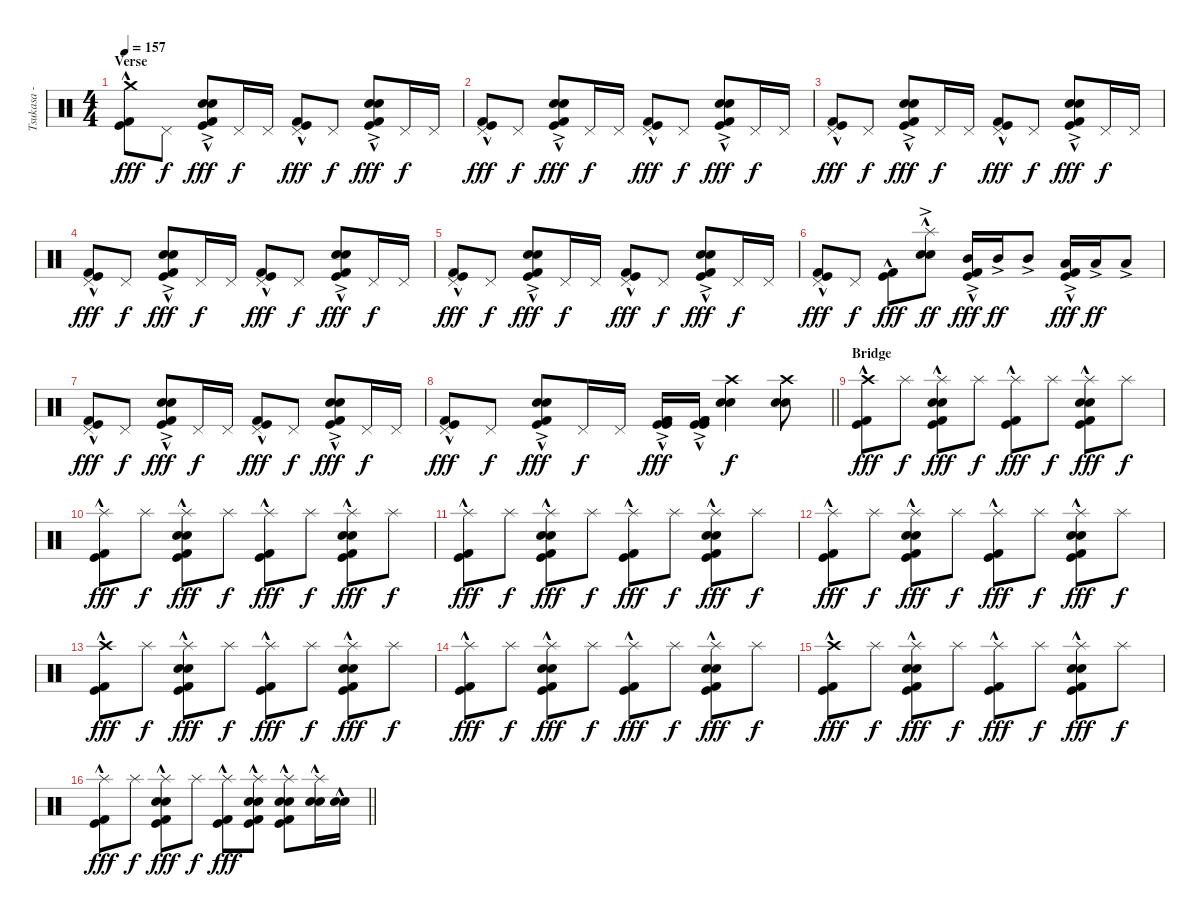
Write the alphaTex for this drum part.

\track ("Tsukasa - Drums" "Tsukasa - ") {instrument percussion}
\staff {score}
\articulation defaults
\ts (4 4)
\section ("" "Verse")
\tempo 157
\clef neutral
\ks c
("Crash medium (hit)" "Kick (hit)"{hac} "Kick (hit) 2"{hac}).8{dy fff} "Pedal Hi-Hat (hit)".8{dy f} ("Electric Snare (hit)"{ac} "Snare (hit) 2"{ac} "Kick (hit)"{hac} "Kick (hit) 2"{hac}).8{dy fff} "Pedal Hi-Hat (hit)".16{dy f} "Pedal Hi-Hat (hit)".16 ("Pedal Hi-Hat (hit)" "Kick (hit)"{hac} "Kick (hit) 2"{hac}).8{dy fff} "Pedal Hi-Hat (hit)".8{dy f} ("Electric Snare (hit)"{ac} "Snare (hit) 2"{ac} "Kick (hit)"{hac} "Kick (hit) 2"{hac}).8{dy fff} "Pedal Hi-Hat (hit)".16{dy f} "Pedal Hi-Hat (hit)".16 |
("Pedal Hi-Hat (hit)" "Kick (hit)"{hac} "Kick (hit) 2"{hac}).8{dy fff} "Pedal Hi-Hat (hit)".8{dy f} ("Electric Snare (hit)"{ac} "Snare (hit) 2"{ac} "Kick (hit)"{hac} "Kick (hit) 2"{hac}).8{dy fff} "Pedal Hi-Hat (hit)".16{dy f} "Pedal Hi-Hat (hit)".16 ("Pedal Hi-Hat (hit)" "Kick (hit)"{hac} "Kick (hit) 2"{hac}).8{dy fff} "Pedal Hi-Hat (hit)".8{dy f} ("Electric Snare (hit)"{ac} "Snare (hit) 2"{ac} "Kick (hit)"{hac} "Kick (hit) 2"{hac}).8{dy fff} "Pedal Hi-Hat (hit)".16{dy f} "Pedal Hi-Hat (hit)".16 |
("Pedal Hi-Hat (hit)" "Kick (hit)"{hac} "Kick (hit) 2"{hac}).8{dy fff} "Pedal Hi-Hat (hit)".8{dy f} ("Electric Snare (hit)"{ac} "Snare (hit) 2"{ac} "Kick (hit)"{hac} "Kick (hit) 2"{hac}).8{dy fff} "Pedal Hi-Hat (hit)".16{dy f} "Pedal Hi-Hat (hit)".16 ("Pedal Hi-Hat (hit)" "Kick (hit)"{hac} "Kick (hit) 2"{hac}).8{dy fff} "Pedal Hi-Hat (hit)".8{dy f} ("Electric Snare (hit)"{ac} "Snare (hit) 2"{ac} "Kick (hit)"{hac} "Kick (hit) 2"{hac}).8{dy fff} "Pedal Hi-Hat (hit)".16{dy f} "Pedal Hi-Hat (hit)".16 |
("Pedal Hi-Hat (hit)" "Kick (hit)"{hac} "Kick (hit) 2"{hac}).8{dy fff} "Pedal Hi-Hat (hit)".8{dy f} ("Electric Snare (hit)"{ac} "Snare (hit) 2"{ac} "Kick (hit)"{hac} "Kick (hit) 2"{hac}).8{dy fff} "Pedal Hi-Hat (hit)".16{dy f} "Pedal Hi-Hat (hit)".16 ("Pedal Hi-Hat (hit)" "Kick (hit)"{hac} "Kick (hit) 2"{hac}).8{dy fff} "Pedal Hi-Hat (hit)".8{dy f} ("Electric Snare (hit)"{ac} "Snare (hit) 2"{ac} "Kick (hit)"{hac} "Kick (hit) 2"{hac}).8{dy fff} "Pedal Hi-Hat (hit)".16{dy f} "Pedal Hi-Hat (hit)".16 |
("Pedal Hi-Hat (hit)" "Kick (hit)"{hac} "Kick (hit) 2"{hac}).8{dy fff} "Pedal Hi-Hat (hit)".8{dy f} ("Electric Snare (hit)"{ac} "Snare (hit) 2"{ac} "Kick (hit)"{hac} "Kick (hit) 2"{hac}).8{dy fff} "Pedal Hi-Hat (hit)".16{dy f} "Pedal Hi-Hat (hit)".16 ("Pedal Hi-Hat (hit)" "Kick (hit)"{hac} "Kick (hit) 2"{hac}).8{dy fff} "Pedal Hi-Hat (hit)".8{dy f} ("Electric Snare (hit)"{ac} "Snare (hit) 2"{ac} "Kick (hit)"{hac} "Kick (hit) 2"{hac}).8{dy fff} "Pedal Hi-Hat (hit)".16{dy f} "Pedal Hi-Hat (hit)".16 |
("Pedal Hi-Hat (hit)" "Kick (hit)"{hac} "Kick (hit) 2"{hac}).8{dy fff} "Pedal Hi-Hat (hit)".8{dy f} ("Kick (hit)"{hac} "Kick (hit) 2"{hac}).8{dy fff} ("Splash (hit)" "Electric Snare (hit)"{hac} "Snare (hit) 2"{ac}).8{dy ff} ("Mid Tom (hit)"{ac} "Kick (hit)"{hac} "Kick (hit) 2"{hac}).16{dy fff} "Mid Tom (hit)"{ac}.16{dy ff} "Mid Tom (hit)"{ac}.8 ("Low Tom (hit)"{ac} "Kick (hit)"{hac} "Kick (hit) 2"{hac}).16{dy fff} "Low Tom (hit)"{ac}.16{dy ff} "Low Tom (hit)"{ac}.8 |
("Pedal Hi-Hat (hit)" "Kick (hit)"{hac} "Kick (hit) 2"{hac}).8{dy fff} "Pedal Hi-Hat (hit)".8{dy f} ("Electric Snare (hit)"{ac} "Snare (hit) 2"{ac} "Kick (hit)"{hac} "Kick (hit) 2"{hac}).8{dy fff} "Pedal Hi-Hat (hit)".16{dy f} "Pedal Hi-Hat (hit)".16 ("Pedal Hi-Hat (hit)" "Kick (hit)"{hac} "Kick (hit) 2"{hac}).8{dy fff} "Pedal Hi-Hat (hit)".8{dy f} ("Electric Snare (hit)"{ac} "Snare (hit) 2"{ac} "Kick (hit)"{hac} "Kick (hit) 2"{hac}).8{dy fff} "Pedal Hi-Hat (hit)".16{dy f} "Pedal Hi-Hat (hit)".16 |
\barLineRight lightlight
("Pedal Hi-Hat (hit)" "Kick (hit)"{hac} "Kick (hit) 2"{hac}).8{dy fff} "Pedal Hi-Hat (hit)".8{dy f} ("Electric Snare (hit)"{ac} "Snare (hit) 2"{ac} "Kick (hit)"{hac} "Kick (hit) 2"{hac}).8{dy fff} "Pedal Hi-Hat (hit)".16{dy f} "Pedal Hi-Hat (hit)".16 ("Kick (hit)"{ac} "Kick (hit) 2"{ac} "Kick (hit)"{hac} "Kick (hit) 2"{hac}).16{dy fff} ("Kick (hit)"{ac} "Kick (hit) 2"{ac} "Kick (hit)"{hac} "Kick (hit) 2"{hac}).16 ("Crash high (hit)" "Electric Snare (hit)" "Snare (hit) 2").4{dy f} ("Crash high (hit)" "Electric Snare (hit)" "Snare (hit) 2").8 |
\section ("" "Bridge")
("Crash high (hit)" "Kick (hit)"{hac} "Kick (hit) 2"{hac}).8{dy fff} "Splash (hit)".8{dy f} ("Splash (hit)"{hac} "Electric Snare (hit)"{hac} "Snare (hit) 2" "Kick (hit)"{hac} "Kick (hit) 2"{hac}).8{dy fff} "Splash (hit)".8{dy f} ("Splash (hit)"{hac} "Kick (hit)"{hac} "Kick (hit) 2"{hac}).8{dy fff} "Splash (hit)".8{dy f} ("Splash (hit)"{hac} "Electric Snare (hit)"{hac} "Snare (hit) 2" "Kick (hit)"{hac} "Kick (hit) 2"{hac}).8{dy fff} "Splash (hit)".8{dy f} |
("Splash (hit)"{hac} "Kick (hit)"{hac} "Kick (hit) 2"{hac}).8{dy fff} "Splash (hit)".8{dy f} ("Splash (hit)"{hac} "Electric Snare (hit)"{hac} "Snare (hit) 2" "Kick (hit)"{hac} "Kick (hit) 2"{hac}).8{dy fff} "Splash (hit)".8{dy f} ("Splash (hit)"{hac} "Kick (hit)"{hac} "Kick (hit) 2"{hac}).8{dy fff} "Splash (hit)".8{dy f} ("Splash (hit)"{hac} "Electric Snare (hit)"{hac} "Snare (hit) 2" "Kick (hit)"{hac} "Kick (hit) 2"{hac}).8{dy fff} "Splash (hit)".8{dy f} |
("Splash (hit)"{hac} "Kick (hit)"{hac} "Kick (hit) 2"{hac}).8{dy fff} "Splash (hit)".8{dy f} ("Splash (hit)"{hac} "Electric Snare (hit)"{hac} "Snare (hit) 2" "Kick (hit)"{hac} "Kick (hit) 2"{hac}).8{dy fff} "Splash (hit)".8{dy f} ("Splash (hit)"{hac} "Kick (hit)"{hac} "Kick (hit) 2"{hac}).8{dy fff} "Splash (hit)".8{dy f} ("Splash (hit)"{hac} "Electric Snare (hit)"{hac} "Snare (hit) 2" "Kick (hit)"{hac} "Kick (hit) 2"{hac}).8{dy fff} "Splash (hit)".8{dy f} |
("Splash (hit)"{hac} "Kick (hit)"{hac} "Kick (hit) 2"{hac}).8{dy fff} "Splash (hit)".8{dy f} ("Splash (hit)"{hac} "Electric Snare (hit)"{hac} "Snare (hit) 2" "Kick (hit)"{hac} "Kick (hit) 2"{hac}).8{dy fff} "Splash (hit)".8{dy f} ("Splash (hit)"{hac} "Kick (hit)"{hac} "Kick (hit) 2"{hac}).8{dy fff} "Splash (hit)".8{dy f} ("Splash (hit)"{hac} "Electric Snare (hit)"{hac} "Snare (hit) 2" "Kick (hit)"{hac} "Kick (hit) 2"{hac}).8{dy fff} "Splash (hit)".8{dy f} |
("Crash high (hit)" "Kick (hit)"{hac} "Kick (hit) 2"{hac}).8{dy fff} "Splash (hit)".8{dy f} ("Splash (hit)"{hac} "Electric Snare (hit)"{hac} "Snare (hit) 2" "Kick (hit)"{hac} "Kick (hit) 2"{hac}).8{dy fff} "Splash (hit)".8{dy f} ("Splash (hit)"{hac} "Kick (hit)"{hac} "Kick (hit) 2"{hac}).8{dy fff} "Splash (hit)".8{dy f} ("Splash (hit)"{hac} "Electric Snare (hit)"{hac} "Snare (hit) 2" "Kick (hit)"{hac} "Kick (hit) 2"{hac}).8{dy fff} "Splash (hit)".8{dy f} |
("Splash (hit)"{hac} "Kick (hit)"{hac} "Kick (hit) 2"{hac}).8{dy fff} "Splash (hit)".8{dy f} ("Splash (hit)"{hac} "Electric Snare (hit)"{hac} "Snare (hit) 2" "Kick (hit)"{hac} "Kick (hit) 2"{hac}).8{dy fff} "Splash (hit)".8{dy f} ("Splash (hit)"{hac} "Kick (hit)"{hac} "Kick (hit) 2"{hac}).8{dy fff} "Splash (hit)".8{dy f} ("Splash (hit)"{hac} "Electric Snare (hit)"{hac} "Snare (hit) 2" "Kick (hit)"{hac} "Kick (hit) 2"{hac}).8{dy fff} "Splash (hit)".8{dy f} |
("Crash high (hit)" "Kick (hit)"{hac} "Kick (hit) 2"{hac}).8{dy fff} "Splash (hit)".8{dy f} ("Splash (hit)"{hac} "Electric Snare (hit)"{hac} "Snare (hit) 2" "Kick (hit)"{hac} "Kick (hit) 2"{hac}).8{dy fff} "Splash (hit)".8{dy f} ("Splash (hit)"{hac} "Kick (hit)"{hac} "Kick (hit) 2"{hac}).8{dy fff} "Splash (hit)".8{dy f} ("Splash (hit)"{hac} "Electric Snare (hit)"{hac} "Snare (hit) 2" "Kick (hit)"{hac} "Kick (hit) 2"{hac}).8{dy fff} "Splash (hit)".8{dy f} |
\barLineRight lightlight
("Splash (hit)"{hac} "Kick (hit)"{hac} "Kick (hit) 2"{hac}).8{dy fff} "Splash (hit)".8{dy f} ("Splash (hit)"{hac} "Electric Snare (hit)"{hac} "Snare (hit) 2" "Kick (hit)"{hac} "Kick (hit) 2"{hac}).8{dy fff} "Splash (hit)".8{dy f} ("Splash (hit)"{hac} "Kick (hit)"{hac} "Kick (hit) 2"{hac}).8{dy fff} ("Splash (hit)" "Electric Snare (hit)"{hac} "Snare (hit) 2"{hac} "Kick (hit)"{hac} "Kick (hit) 2"{hac}).8 ("Splash (hit)"{hac} "Electric Snare (hit)"{hac} "Snare (hit) 2"{hac} "Kick (hit)"{hac} "Kick (hit) 2"{hac}).8 ("Splash (hit)" "Electric Snare (hit)"{hac} "Snare (hit) 2"{hac}).16 ("Electric Snare (hit)"{hac} "Snare (hit) 2"{hac}).16
